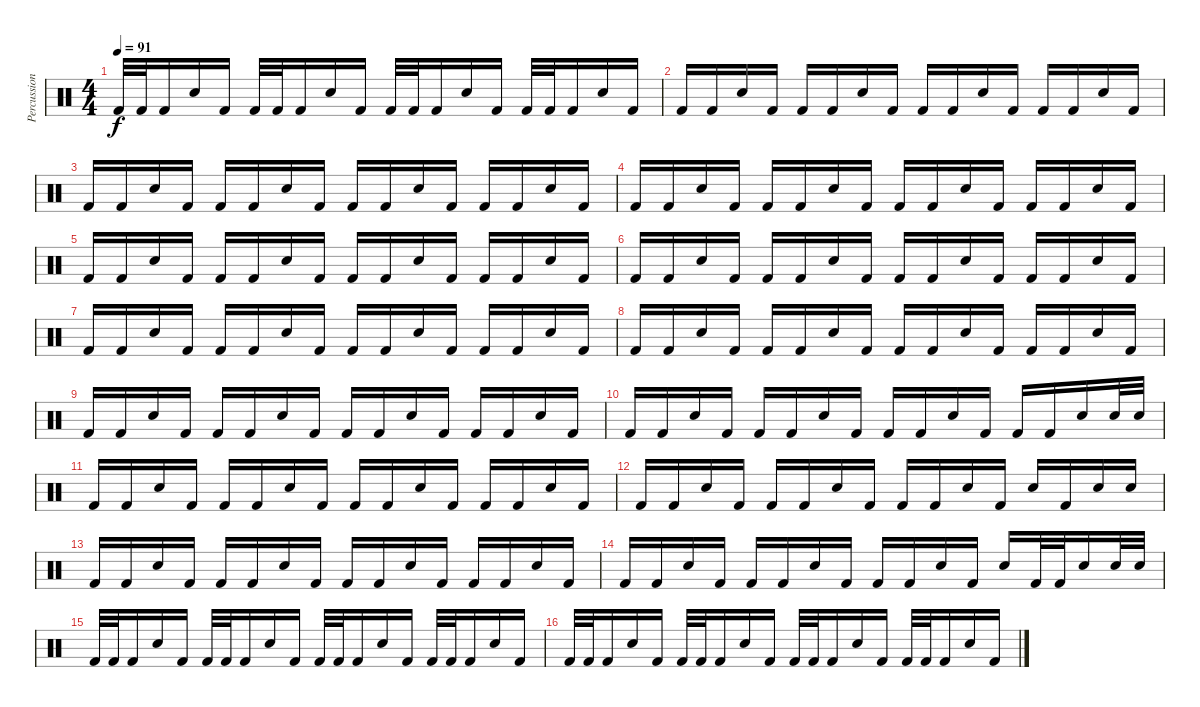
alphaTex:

\track ("Percussion" "Percussion") {instrument percussion}
\staff {score}
\articulation defaults
\ts (4 4)
\tempo 91
\clef neutral
\ks c "Kick (hit) 2".32{dy f} "Kick (hit) 2".32 "Kick (hit) 2".16 "Snare (hit) 2".16 "Kick (hit) 2".16 "Kick (hit) 2".32 "Kick (hit) 2".32 "Kick (hit) 2".16 "Snare (hit) 2".16 "Kick (hit) 2".16 "Kick (hit) 2".32 "Kick (hit) 2".32 "Kick (hit) 2".16 "Snare (hit) 2".16 "Kick (hit) 2".16 "Kick (hit) 2".32 "Kick (hit) 2".32 "Kick (hit) 2".16 "Snare (hit) 2".16 "Kick (hit) 2".16
|
"Kick (hit) 2".16 "Kick (hit) 2".16 "Snare (hit) 2".16 "Kick (hit) 2".16 "Kick (hit) 2".16 "Kick (hit) 2".16 "Snare (hit) 2".16 "Kick (hit) 2".16 "Kick (hit) 2".16 "Kick (hit) 2".16 "Snare (hit) 2".16 "Kick (hit) 2".16 "Kick (hit) 2".16 "Kick (hit) 2".16 "Snare (hit) 2".16 "Kick (hit) 2".16 |
"Kick (hit) 2".16 "Kick (hit) 2".16 "Snare (hit) 2".16 "Kick (hit) 2".16 "Kick (hit) 2".16 "Kick (hit) 2".16 "Snare (hit) 2".16 "Kick (hit) 2".16 "Kick (hit) 2".16 "Kick (hit) 2".16 "Snare (hit) 2".16 "Kick (hit) 2".16 "Kick (hit) 2".16 "Kick (hit) 2".16 "Snare (hit) 2".16 "Kick (hit) 2".16 |
"Kick (hit) 2".16 "Kick (hit) 2".16 "Snare (hit) 2".16 "Kick (hit) 2".16 "Kick (hit) 2".16 "Kick (hit) 2".16 "Snare (hit) 2".16 "Kick (hit) 2".16 "Kick (hit) 2".16 "Kick (hit) 2".16 "Snare (hit) 2".16 "Kick (hit) 2".16 "Kick (hit) 2".16 "Kick (hit) 2".16 "Snare (hit) 2".16 "Kick (hit) 2".16 |
"Kick (hit) 2".16 "Kick (hit) 2".16 "Snare (hit) 2".16 "Kick (hit) 2".16 "Kick (hit) 2".16 "Kick (hit) 2".16 "Snare (hit) 2".16 "Kick (hit) 2".16 "Kick (hit) 2".16 "Kick (hit) 2".16 "Snare (hit) 2".16 "Kick (hit) 2".16 "Kick (hit) 2".16 "Kick (hit) 2".16 "Snare (hit) 2".16 "Kick (hit) 2".16 |
"Kick (hit) 2".16 "Kick (hit) 2".16 "Snare (hit) 2".16 "Kick (hit) 2".16 "Kick (hit) 2".16 "Kick (hit) 2".16 "Snare (hit) 2".16 "Kick (hit) 2".16 "Kick (hit) 2".16 "Kick (hit) 2".16 "Snare (hit) 2".16 "Kick (hit) 2".16 "Kick (hit) 2".16 "Kick (hit) 2".16 "Snare (hit) 2".16 "Kick (hit) 2".16 |
"Kick (hit) 2".16 "Kick (hit) 2".16 "Snare (hit) 2".16 "Kick (hit) 2".16 "Kick (hit) 2".16 "Kick (hit) 2".16 "Snare (hit) 2".16 "Kick (hit) 2".16 "Kick (hit) 2".16 "Kick (hit) 2".16 "Snare (hit) 2".16 "Kick (hit) 2".16 "Kick (hit) 2".16 "Kick (hit) 2".16 "Snare (hit) 2".16 "Kick (hit) 2".16 |
"Kick (hit) 2".16 "Kick (hit) 2".16 "Snare (hit) 2".16 "Kick (hit) 2".16 "Kick (hit) 2".16 "Kick (hit) 2".16 "Snare (hit) 2".16 "Kick (hit) 2".16 "Kick (hit) 2".16 "Kick (hit) 2".16 "Snare (hit) 2".16 "Kick (hit) 2".16 "Kick (hit) 2".16 "Kick (hit) 2".16 "Snare (hit) 2".16 "Kick (hit) 2".16 |
"Kick (hit) 2".16 "Kick (hit) 2".16 "Snare (hit) 2".16 "Kick (hit) 2".16 "Kick (hit) 2".16 "Kick (hit) 2".16 "Snare (hit) 2".16 "Kick (hit) 2".16 "Kick (hit) 2".16 "Kick (hit) 2".16 "Snare (hit) 2".16 "Kick (hit) 2".16 "Kick (hit) 2".16 "Kick (hit) 2".16 "Snare (hit) 2".16 "Kick (hit) 2".16 |
"Kick (hit) 2".16 "Kick (hit) 2".16 "Snare (hit) 2".16 "Kick (hit) 2".16 "Kick (hit) 2".16 "Kick (hit) 2".16 "Snare (hit) 2".16 "Kick (hit) 2".16 "Kick (hit) 2".16 "Kick (hit) 2".16 "Snare (hit) 2".16 "Kick (hit) 2".16 "Kick (hit) 2".16 "Kick (hit) 2".16 "Snare (hit) 2".16 "Snare (hit) 2".32 "Snare (hit) 2".32 |
"Kick (hit) 2".16 "Kick (hit) 2".16 "Snare (hit) 2".16 "Kick (hit) 2".16 "Kick (hit) 2".16 "Kick (hit) 2".16 "Snare (hit) 2".16 "Kick (hit) 2".16 "Kick (hit) 2".16 "Kick (hit) 2".16 "Snare (hit) 2".16 "Kick (hit) 2".16 "Kick (hit) 2".16 "Kick (hit) 2".16 "Snare (hit) 2".16 "Kick (hit) 2".16 |
"Kick (hit) 2".16 "Kick (hit) 2".16 "Snare (hit) 2".16 "Kick (hit) 2".16 "Kick (hit) 2".16 "Kick (hit) 2".16 "Snare (hit) 2".16 "Kick (hit) 2".16 "Kick (hit) 2".16 "Kick (hit) 2".16 "Snare (hit) 2".16 "Kick (hit) 2".16 "Snare (hit) 2".16 "Kick (hit) 2".16 "Snare (hit) 2".16 "Snare (hit) 2".16 |
"Kick (hit) 2".16 "Kick (hit) 2".16 "Snare (hit) 2".16 "Kick (hit) 2".16 "Kick (hit) 2".16 "Kick (hit) 2".16 "Snare (hit) 2".16 "Kick (hit) 2".16 "Kick (hit) 2".16 "Kick (hit) 2".16 "Snare (hit) 2".16 "Kick (hit) 2".16 "Kick (hit) 2".16 "Kick (hit) 2".16 "Snare (hit) 2".16 "Kick (hit) 2".16 |
"Kick (hit) 2".16 "Kick (hit) 2".16 "Snare (hit) 2".16 "Kick (hit) 2".16 "Kick (hit) 2".16 "Kick (hit) 2".16 "Snare (hit) 2".16 "Kick (hit) 2".16 "Kick (hit) 2".16 "Kick (hit) 2".16 "Snare (hit) 2".16 "Kick (hit) 2".16 "Snare (hit) 2".16 "Kick (hit) 2".32 "Kick (hit) 2".32 "Snare (hit) 2".16 "Snare (hit) 2".32 "Snare (hit) 2".32 |
"Kick (hit) 2".32 "Kick (hit) 2".32 "Kick (hit) 2".16 "Snare (hit) 2".16 "Kick (hit) 2".16 "Kick (hit) 2".32 "Kick (hit) 2".32 "Kick (hit) 2".16 "Snare (hit) 2".16 "Kick (hit) 2".16 "Kick (hit) 2".32 "Kick (hit) 2".32 "Kick (hit) 2".16 "Snare (hit) 2".16 "Kick (hit) 2".16 "Kick (hit) 2".32 "Kick (hit) 2".32 "Kick (hit) 2".16 "Snare (hit) 2".16 "Kick (hit) 2".16 |
"Kick (hit) 2".32 "Kick (hit) 2".32 "Kick (hit) 2".16 "Snare (hit) 2".16 "Kick (hit) 2".16 "Kick (hit) 2".32 "Kick (hit) 2".32 "Kick (hit) 2".16 "Snare (hit) 2".16 "Kick (hit) 2".16 "Kick (hit) 2".32 "Kick (hit) 2".32 "Kick (hit) 2".16 "Snare (hit) 2".16 "Kick (hit) 2".16 "Kick (hit) 2".32 "Kick (hit) 2".32 "Kick (hit) 2".16 "Snare (hit) 2".16 "Kick (hit) 2".16
